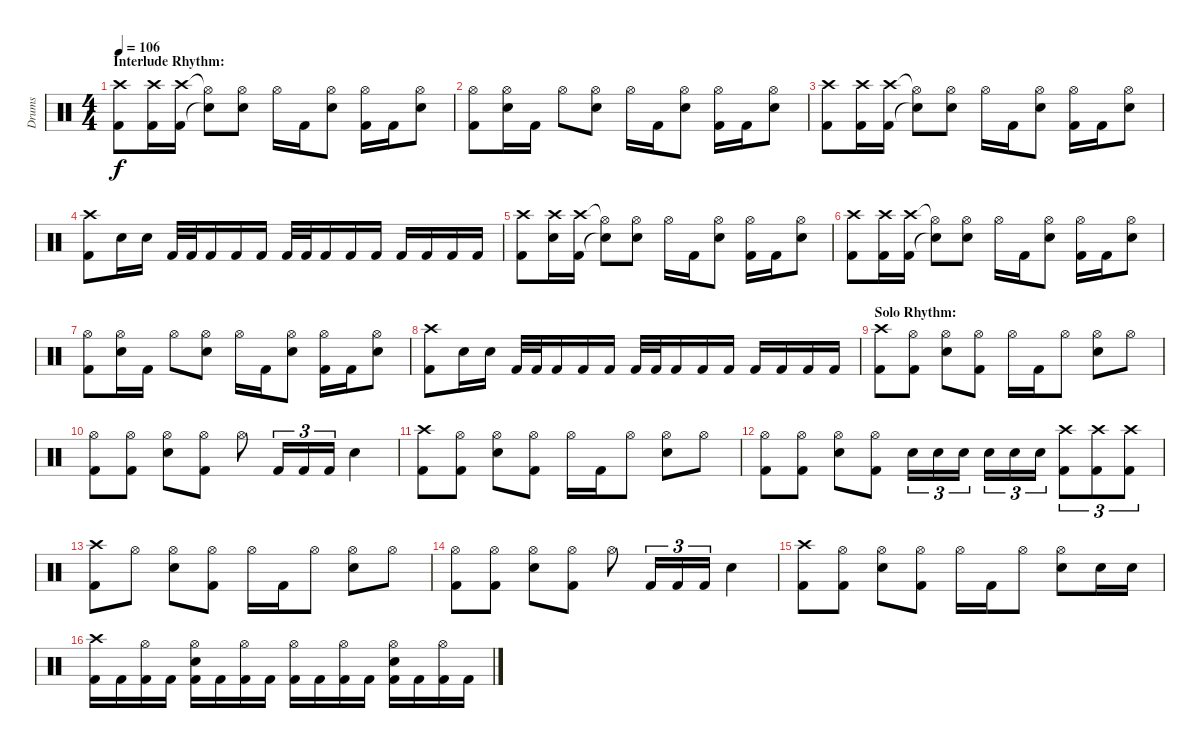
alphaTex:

\track ("Drums" "Drums") {instrument percussion}
\staff {score}
\articulation defaults
\ts (4 4)
\section ("" "Interlude Rhythm:")
\tempo 106
\clef neutral
\ks c
("Crash high (hit)" "Kick (hit) 2").8{dy f} ("Crash high (hit)" "Kick (hit) 2").16 ("Crash high (hit)" "Kick (hit) 2").16 ("Hi-Hat (open)"{t} "Snare (hit)"{t}).8 ("Hi-Hat (open)" "Electric Snare (hit)").8 "Hi-Hat (open)".16 "Kick (hit) 2".16 ("Hi-Hat (open)" "Electric Snare (hit)").8 ("Hi-Hat (open)" "Kick (hit) 2").16 "Kick (hit) 2".16 ("Hi-Hat (open)" "Electric Snare (hit)").8 |
("Hi-Hat (open)" "Kick (hit) 2").8 ("Hi-Hat (open)" "Electric Snare (hit)").16 "Kick (hit) 2".16 "Hi-Hat (open)".8 ("Hi-Hat (open)" "Electric Snare (hit)").8 "Hi-Hat (open)".16 "Kick (hit) 2".16 ("Hi-Hat (open)" "Electric Snare (hit)").8 ("Hi-Hat (open)" "Kick (hit) 2").16 "Kick (hit) 2".16 ("Hi-Hat (open)" "Electric Snare (hit)").8 |
("Crash high (hit)" "Kick (hit) 2").8 ("Crash high (hit)" "Kick (hit) 2").16 ("Crash high (hit)" "Kick (hit) 2").16 ("Hi-Hat (open)"{t} "Snare (hit)"{t}).8 ("Hi-Hat (open)" "Electric Snare (hit)").8 "Hi-Hat (open)".16 "Kick (hit) 2".16 ("Hi-Hat (open)" "Electric Snare (hit)").8 ("Hi-Hat (open)" "Kick (hit) 2").16 "Kick (hit) 2".16 ("Hi-Hat (open)" "Electric Snare (hit)").8 |
("Crash high (hit)" "Kick (hit) 2").8 "Electric Snare (hit)".16 "Electric Snare (hit)".16 "Kick (hit) 2".32 "Kick (hit) 2".32 "Kick (hit) 2".16 "Kick (hit) 2".16 "Kick (hit) 2".16 "Kick (hit) 2".32 "Kick (hit) 2".32 "Kick (hit) 2".16 "Kick (hit) 2".16 "Kick (hit) 2".16 "Kick (hit) 2".16 "Kick (hit) 2".16 "Kick (hit) 2".16 "Kick (hit) 2".16 |
("Crash high (hit)" "Kick (hit) 2").8 ("Crash high (hit)" "Electric Snare (hit)").16 ("Crash high (hit)" "Kick (hit) 2").16 ("Hi-Hat (open)"{t} "Snare (hit)"{t}).8 ("Hi-Hat (open)" "Electric Snare (hit)").8 "Hi-Hat (open)".16 "Kick (hit) 2".16 ("Hi-Hat (open)" "Electric Snare (hit)").8 ("Hi-Hat (open)" "Kick (hit) 2").16 "Kick (hit) 2".16 ("Hi-Hat (open)" "Electric Snare (hit)").8 |
("Crash high (hit)" "Kick (hit) 2").8 ("Crash high (hit)" "Kick (hit) 2").16 ("Crash high (hit)" "Kick (hit) 2").16 ("Hi-Hat (open)"{t} "Snare (hit)"{t}).8 ("Hi-Hat (open)" "Electric Snare (hit)").8 "Hi-Hat (open)".16 "Kick (hit) 2".16 ("Hi-Hat (open)" "Electric Snare (hit)").8 ("Hi-Hat (open)" "Kick (hit) 2").16 "Kick (hit) 2".16 ("Hi-Hat (open)" "Electric Snare (hit)").8 |
("Hi-Hat (open)" "Kick (hit) 2").8 ("Hi-Hat (open)" "Electric Snare (hit)").16 "Kick (hit) 2".16 "Hi-Hat (open)".8 ("Hi-Hat (open)" "Electric Snare (hit)").8 "Hi-Hat (open)".16 "Kick (hit) 2".16 ("Hi-Hat (open)" "Electric Snare (hit)").8 ("Hi-Hat (open)" "Kick (hit) 2").16 "Kick (hit) 2".16 ("Hi-Hat (open)" "Electric Snare (hit)").8 |
("Crash high (hit)" "Kick (hit) 2").8 "Electric Snare (hit)".16 "Electric Snare (hit)".16 "Kick (hit) 2".32 "Kick (hit) 2".32 "Kick (hit) 2".16 "Kick (hit) 2".16 "Kick (hit) 2".16 "Kick (hit) 2".32 "Kick (hit) 2".32 "Kick (hit) 2".16 "Kick (hit) 2".16 "Kick (hit) 2".16 "Kick (hit) 2".16 "Kick (hit) 2".16 "Kick (hit) 2".16 "Kick (hit) 2".16 |
\section ("" "Solo Rhythm:")
("Crash high (hit)" "Kick (hit) 2").8 ("Hi-Hat (open)" "Kick (hit) 2").8 ("Hi-Hat (open)" "Electric Snare (hit)").8 ("Hi-Hat (open)" "Kick (hit) 2").8 "Hi-Hat (open)".16 "Kick (hit) 2".16 "Hi-Hat (open)".8 ("Hi-Hat (open)" "Electric Snare (hit)").8 "Hi-Hat (open)".8 |
("Hi-Hat (open)" "Kick (hit) 2").8 ("Hi-Hat (open)" "Kick (hit) 2").8 ("Hi-Hat (open)" "Electric Snare (hit)").8 ("Hi-Hat (open)" "Kick (hit) 2").8 "Hi-Hat (open)".8 "Kick (hit) 2".16{tu (3 2)} "Kick (hit) 2".16{tu (3 2)} "Kick (hit) 2".16{tu (3 2)} "Electric Snare (hit)".4 |
("Crash high (hit)" "Kick (hit) 2").8 ("Hi-Hat (open)" "Kick (hit) 2").8 ("Hi-Hat (open)" "Electric Snare (hit)").8 ("Hi-Hat (open)" "Kick (hit) 2").8 "Hi-Hat (open)".16 "Kick (hit) 2".16 "Hi-Hat (open)".8 ("Hi-Hat (open)" "Electric Snare (hit)").8 "Hi-Hat (open)".8 |
("Hi-Hat (open)" "Kick (hit) 2").8 ("Hi-Hat (open)" "Kick (hit) 2").8 ("Hi-Hat (open)" "Electric Snare (hit)").8 ("Hi-Hat (open)" "Kick (hit) 2").8 "Electric Snare (hit)".16{tu (3 2)} "Electric Snare (hit)".16{tu (3 2)} "Electric Snare (hit)".16{tu (3 2)} "Electric Snare (hit)".16{tu (3 2)} "Electric Snare (hit)".16{tu (3 2)} "Electric Snare (hit)".16{tu (3 2)} ("Crash high (hit)" "Kick (hit) 2").8{tu (3 2)} ("Crash high (hit)" "Kick (hit) 2").8{tu (3 2)} ("Crash high (hit)" "Kick (hit) 2").8{tu (3 2)} |
("Crash high (hit)" "Kick (hit) 2").8 "Hi-Hat (open)".8 ("Hi-Hat (open)" "Electric Snare (hit)").8 ("Hi-Hat (open)" "Kick (hit) 2").8 "Hi-Hat (open)".16 "Kick (hit) 2".16 "Hi-Hat (open)".8 ("Hi-Hat (open)" "Electric Snare (hit)").8 "Hi-Hat (open)".8 |
("Hi-Hat (open)" "Kick (hit) 2").8 ("Hi-Hat (open)" "Kick (hit) 2").8 ("Hi-Hat (open)" "Electric Snare (hit)").8 ("Hi-Hat (open)" "Kick (hit) 2").8 "Hi-Hat (open)".8 "Kick (hit) 2".16{tu (3 2)} "Kick (hit) 2".16{tu (3 2)} "Kick (hit) 2".16{tu (3 2)} "Electric Snare (hit)".4 |
("Crash high (hit)" "Kick (hit) 2").8 ("Hi-Hat (open)" "Kick (hit) 2").8 ("Hi-Hat (open)" "Electric Snare (hit)").8 ("Hi-Hat (open)" "Kick (hit) 2").8 "Hi-Hat (open)".16 "Kick (hit) 2".16 "Hi-Hat (open)".8 ("Hi-Hat (open)" "Electric Snare (hit)").8 "Electric Snare (hit)".16 "Electric Snare (hit)".16 |
("Crash high (hit)" "Kick (hit) 2").16 "Kick (hit) 2".16 ("Hi-Hat (open)" "Kick (hit) 2").16 "Kick (hit) 2".16 ("Hi-Hat (open)" "Electric Snare (hit)" "Kick (hit) 2").16 "Kick (hit) 2".16 ("Hi-Hat (open)" "Kick (hit) 2").16 "Kick (hit) 2".16 ("Hi-Hat (open)" "Kick (hit) 2").16 "Kick (hit) 2".16 ("Hi-Hat (open)" "Kick (hit) 2").16 "Kick (hit) 2".16 ("Hi-Hat (open)" "Electric Snare (hit)" "Kick (hit) 2").16 "Kick (hit) 2".16 ("Hi-Hat (open)" "Kick (hit) 2").16 "Kick (hit) 2".16
